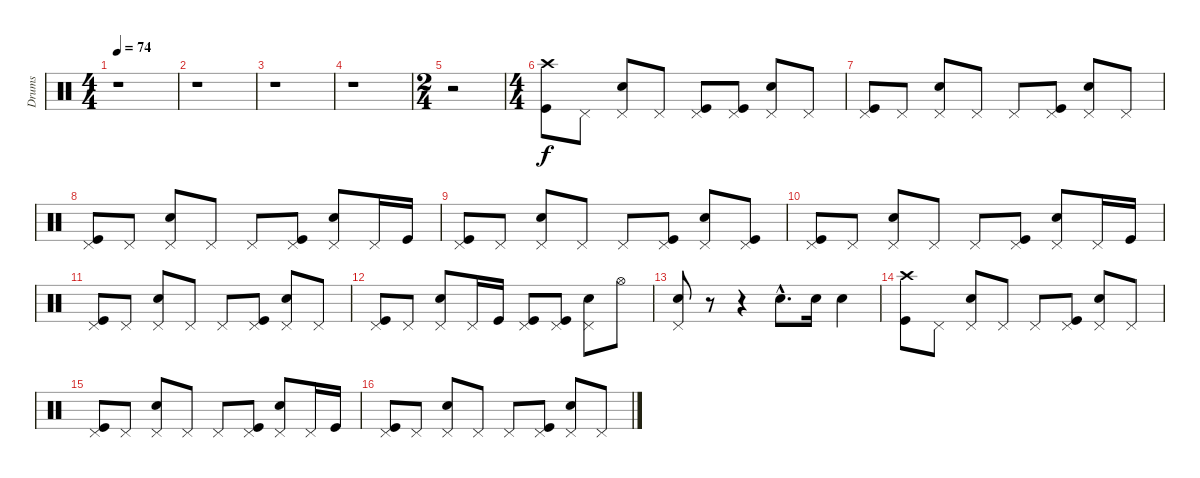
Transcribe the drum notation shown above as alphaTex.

\track ("Drums" "Drums") {instrument percussion}
\staff {score}
\articulation defaults
\ts (4 4)
\tempo 74
\clef neutral
\ks c
r.1{dy f} |
r.1 |
r.1 |
r.1 |
\ts (2 4)
r.2 |
\ts (4 4)
("Crash high (hit)" "Kick (hit)").8 "Pedal Hi-Hat (hit)".8 ("Pedal Hi-Hat (hit)" "Electric Snare (hit)").8 "Pedal Hi-Hat (hit)".8 ("Pedal Hi-Hat (hit)" "Kick (hit)").8 ("Pedal Hi-Hat (hit)" "Kick (hit)").8 ("Pedal Hi-Hat (hit)" "Electric Snare (hit)").8 "Pedal Hi-Hat (hit)".8 |
("Pedal Hi-Hat (hit)" "Kick (hit)").8 "Pedal Hi-Hat (hit)".8 ("Pedal Hi-Hat (hit)" "Electric Snare (hit)").8 "Pedal Hi-Hat (hit)".8 "Pedal Hi-Hat (hit)".8 ("Pedal Hi-Hat (hit)" "Kick (hit)").8 ("Pedal Hi-Hat (hit)" "Electric Snare (hit)").8 "Pedal Hi-Hat (hit)".8 |
("Pedal Hi-Hat (hit)" "Kick (hit)").8 "Pedal Hi-Hat (hit)".8 ("Pedal Hi-Hat (hit)" "Electric Snare (hit)").8 "Pedal Hi-Hat (hit)".8 "Pedal Hi-Hat (hit)".8 ("Pedal Hi-Hat (hit)" "Kick (hit)").8 ("Pedal Hi-Hat (hit)" "Electric Snare (hit)").8 "Pedal Hi-Hat (hit)".16 "Kick (hit)".16 |
("Pedal Hi-Hat (hit)" "Kick (hit)").8 "Pedal Hi-Hat (hit)".8 ("Pedal Hi-Hat (hit)" "Electric Snare (hit)").8 "Pedal Hi-Hat (hit)".8 "Pedal Hi-Hat (hit)".8 ("Pedal Hi-Hat (hit)" "Kick (hit)").8 ("Pedal Hi-Hat (hit)" "Electric Snare (hit)").8 ("Pedal Hi-Hat (hit)" "Kick (hit)").8 |
("Pedal Hi-Hat (hit)" "Kick (hit)").8 "Pedal Hi-Hat (hit)".8 ("Pedal Hi-Hat (hit)" "Electric Snare (hit)").8 "Pedal Hi-Hat (hit)".8 "Pedal Hi-Hat (hit)".8 ("Pedal Hi-Hat (hit)" "Kick (hit)").8 ("Pedal Hi-Hat (hit)" "Electric Snare (hit)").8 "Pedal Hi-Hat (hit)".16 "Kick (hit)".16 |
("Pedal Hi-Hat (hit)" "Kick (hit)").8 "Pedal Hi-Hat (hit)".8 ("Pedal Hi-Hat (hit)" "Electric Snare (hit)").8 "Pedal Hi-Hat (hit)".8 "Pedal Hi-Hat (hit)".8 ("Pedal Hi-Hat (hit)" "Kick (hit)").8 ("Pedal Hi-Hat (hit)" "Electric Snare (hit)").8 "Pedal Hi-Hat (hit)".8 |
("Pedal Hi-Hat (hit)" "Kick (hit)").8 "Pedal Hi-Hat (hit)".8 ("Pedal Hi-Hat (hit)" "Electric Snare (hit)").8 "Pedal Hi-Hat (hit)".16 "Kick (hit)".16 ("Pedal Hi-Hat (hit)" "Kick (hit)").8 ("Pedal Hi-Hat (hit)" "Kick (hit)").8 ("Pedal Hi-Hat (hit)" "Electric Snare (hit)").8 "Hi-Hat (open)".8 |
("Pedal Hi-Hat (hit)" "Electric Snare (hit)").8 r.8 r.4 "Electric Snare (hit)"{hac}.8{d} "Electric Snare (hit)".16 "Electric Snare (hit)".4 |
("Crash high (hit)" "Kick (hit)").8 "Pedal Hi-Hat (hit)".8 ("Pedal Hi-Hat (hit)" "Electric Snare (hit)").8 "Pedal Hi-Hat (hit)".8 "Pedal Hi-Hat (hit)".8 ("Pedal Hi-Hat (hit)" "Kick (hit)").8 ("Pedal Hi-Hat (hit)" "Electric Snare (hit)").8 "Pedal Hi-Hat (hit)".8 |
("Pedal Hi-Hat (hit)" "Kick (hit)").8 "Pedal Hi-Hat (hit)".8 ("Pedal Hi-Hat (hit)" "Electric Snare (hit)").8 "Pedal Hi-Hat (hit)".8 "Pedal Hi-Hat (hit)".8 ("Pedal Hi-Hat (hit)" "Kick (hit)").8 ("Pedal Hi-Hat (hit)" "Electric Snare (hit)").8 "Pedal Hi-Hat (hit)".16 "Kick (hit)".16 |
("Pedal Hi-Hat (hit)" "Kick (hit)").8 "Pedal Hi-Hat (hit)".8 ("Pedal Hi-Hat (hit)" "Electric Snare (hit)").8 "Pedal Hi-Hat (hit)".8 "Pedal Hi-Hat (hit)".8 ("Pedal Hi-Hat (hit)" "Kick (hit)").8 ("Pedal Hi-Hat (hit)" "Electric Snare (hit)").8 "Pedal Hi-Hat (hit)".8
